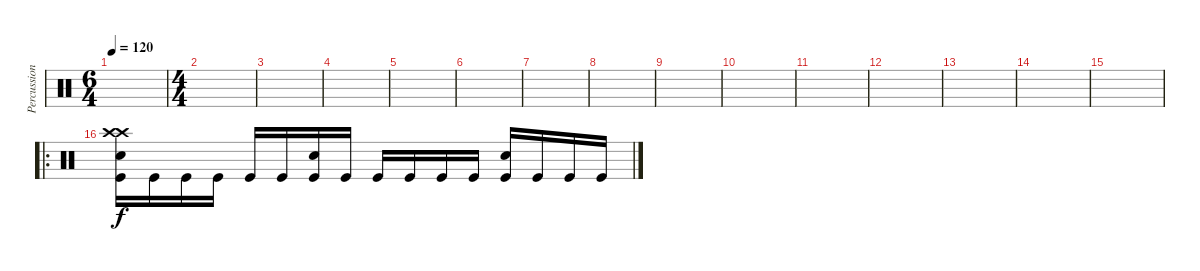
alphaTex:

\track ("Percussion" "Percussion") {instrument percussion}
\staff {score}
\articulation defaults
\ts (6 4)
\tempo 120
\clef neutral
\ks c
|
\ts (4 4)
|
|
|
|
|
|
|
|
|
|
|
|
|
|
\ro
("Electric Snare (hit)" "Kick (hit)" "Crash high (hit)" "Crash high (hit)").16 "Kick (hit)".16 "Kick (hit)".16 "Kick (hit)".16 "Kick (hit)".16 "Kick (hit)".16 ("Electric Snare (hit)" "Kick (hit)").16 "Kick (hit)".16 "Kick (hit)".16 "Kick (hit)".16 "Kick (hit)".16 "Kick (hit)".16 ("Electric Snare (hit)" "Kick (hit)").16 "Kick (hit)".16 "Kick (hit)".16 "Kick (hit)".16
